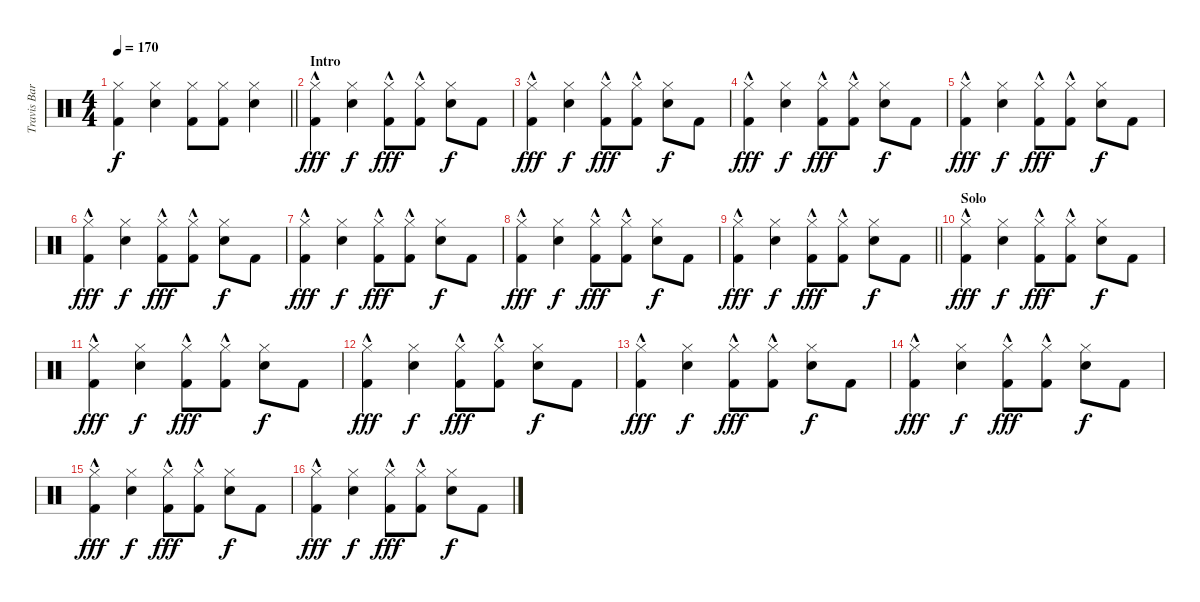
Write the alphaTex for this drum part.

\track ("Travis Barker" "Travis Bar") {instrument percussion}
\staff {score}
\articulation defaults
\ts (4 4)
\tempo 170
\clef neutral
\barLineRight lightlight
\ks c
("Hi-Hat (closed)" "Kick (hit) 2").4{dy f} ("Hi-Hat (closed)" "Snare (hit) 2").4 ("Kick (hit) 2" "Hi-Hat (closed)").8 ("Kick (hit) 2" "Hi-Hat (closed)").8 ("Snare (hit) 2" "Hi-Hat (closed)").4 |
\section ("" "Intro")
("Hi-Hat (closed)" "Kick (hit) 2"{hac}).4{dy fff} ("Hi-Hat (closed)" "Snare (hit) 2").4{dy f} ("Hi-Hat (closed)" "Kick (hit) 2"{hac}).8{dy fff} ("Hi-Hat (closed)" "Kick (hit) 2"{hac}).8 ("Hi-Hat (closed)" "Snare (hit) 2").8{dy f} "Kick (hit) 2".8 |
("Hi-Hat (closed)" "Kick (hit) 2"{hac}).4{dy fff} ("Hi-Hat (closed)" "Snare (hit) 2").4{dy f} ("Hi-Hat (closed)" "Kick (hit) 2"{hac}).8{dy fff} ("Hi-Hat (closed)" "Kick (hit) 2"{hac}).8 ("Hi-Hat (closed)" "Snare (hit) 2").8{dy f} "Kick (hit) 2".8 |
("Hi-Hat (closed)" "Kick (hit) 2"{hac}).4{dy fff} ("Hi-Hat (closed)" "Snare (hit) 2").4{dy f} ("Hi-Hat (closed)" "Kick (hit) 2"{hac}).8{dy fff} ("Hi-Hat (closed)" "Kick (hit) 2"{hac}).8 ("Hi-Hat (closed)" "Snare (hit) 2").8{dy f} "Kick (hit) 2".8 |
("Hi-Hat (closed)" "Kick (hit) 2"{hac}).4{dy fff} ("Hi-Hat (closed)" "Snare (hit) 2").4{dy f} ("Hi-Hat (closed)" "Kick (hit) 2"{hac}).8{dy fff} ("Hi-Hat (closed)" "Kick (hit) 2"{hac}).8 ("Hi-Hat (closed)" "Snare (hit) 2").8{dy f} "Kick (hit) 2".8 |
("Hi-Hat (closed)" "Kick (hit) 2"{hac}).4{dy fff} ("Hi-Hat (closed)" "Snare (hit) 2").4{dy f} ("Hi-Hat (closed)" "Kick (hit) 2"{hac}).8{dy fff} ("Hi-Hat (closed)" "Kick (hit) 2"{hac}).8 ("Hi-Hat (closed)" "Snare (hit) 2").8{dy f} "Kick (hit) 2".8 |
("Hi-Hat (closed)" "Kick (hit) 2"{hac}).4{dy fff} ("Hi-Hat (closed)" "Snare (hit) 2").4{dy f} ("Hi-Hat (closed)" "Kick (hit) 2"{hac}).8{dy fff} ("Hi-Hat (closed)" "Kick (hit) 2"{hac}).8 ("Hi-Hat (closed)" "Snare (hit) 2").8{dy f} "Kick (hit) 2".8 |
("Hi-Hat (closed)" "Kick (hit) 2"{hac}).4{dy fff} ("Hi-Hat (closed)" "Snare (hit) 2").4{dy f} ("Hi-Hat (closed)" "Kick (hit) 2"{hac}).8{dy fff} ("Hi-Hat (closed)" "Kick (hit) 2"{hac}).8 ("Hi-Hat (closed)" "Snare (hit) 2").8{dy f} "Kick (hit) 2".8 |
\barLineRight lightlight
("Hi-Hat (closed)" "Kick (hit) 2"{hac}).4{dy fff} ("Hi-Hat (closed)" "Snare (hit) 2").4{dy f} ("Hi-Hat (closed)" "Kick (hit) 2"{hac}).8{dy fff} ("Hi-Hat (closed)" "Kick (hit) 2"{hac}).8 ("Hi-Hat (closed)" "Snare (hit) 2").8{dy f} "Kick (hit) 2".8 |
\section ("" "Solo")
("Hi-Hat (closed)" "Kick (hit) 2"{hac}).4{dy fff} ("Hi-Hat (closed)" "Snare (hit) 2").4{dy f} ("Hi-Hat (closed)" "Kick (hit) 2"{hac}).8{dy fff} ("Hi-Hat (closed)" "Kick (hit) 2"{hac}).8 ("Hi-Hat (closed)" "Snare (hit) 2").8{dy f} "Kick (hit) 2".8 |
("Hi-Hat (closed)" "Kick (hit) 2"{hac}).4{dy fff} ("Hi-Hat (closed)" "Snare (hit) 2").4{dy f} ("Hi-Hat (closed)" "Kick (hit) 2"{hac}).8{dy fff} ("Hi-Hat (closed)" "Kick (hit) 2"{hac}).8 ("Hi-Hat (closed)" "Snare (hit) 2").8{dy f} "Kick (hit) 2".8 |
("Hi-Hat (closed)" "Kick (hit) 2"{hac}).4{dy fff} ("Hi-Hat (closed)" "Snare (hit) 2").4{dy f} ("Hi-Hat (closed)" "Kick (hit) 2"{hac}).8{dy fff} ("Hi-Hat (closed)" "Kick (hit) 2"{hac}).8 ("Hi-Hat (closed)" "Snare (hit) 2").8{dy f} "Kick (hit) 2".8 |
("Hi-Hat (closed)" "Kick (hit) 2"{hac}).4{dy fff} ("Hi-Hat (closed)" "Snare (hit) 2").4{dy f} ("Hi-Hat (closed)" "Kick (hit) 2"{hac}).8{dy fff} ("Hi-Hat (closed)" "Kick (hit) 2"{hac}).8 ("Hi-Hat (closed)" "Snare (hit) 2").8{dy f} "Kick (hit) 2".8 |
("Hi-Hat (closed)" "Kick (hit) 2"{hac}).4{dy fff} ("Hi-Hat (closed)" "Snare (hit) 2").4{dy f} ("Hi-Hat (closed)" "Kick (hit) 2"{hac}).8{dy fff} ("Hi-Hat (closed)" "Kick (hit) 2"{hac}).8 ("Hi-Hat (closed)" "Snare (hit) 2").8{dy f} "Kick (hit) 2".8 |
("Hi-Hat (closed)" "Kick (hit) 2"{hac}).4{dy fff} ("Hi-Hat (closed)" "Snare (hit) 2").4{dy f} ("Hi-Hat (closed)" "Kick (hit) 2"{hac}).8{dy fff} ("Hi-Hat (closed)" "Kick (hit) 2"{hac}).8 ("Hi-Hat (closed)" "Snare (hit) 2").8{dy f} "Kick (hit) 2".8 |
("Hi-Hat (closed)" "Kick (hit) 2"{hac}).4{dy fff} ("Hi-Hat (closed)" "Snare (hit) 2").4{dy f} ("Hi-Hat (closed)" "Kick (hit) 2"{hac}).8{dy fff} ("Hi-Hat (closed)" "Kick (hit) 2"{hac}).8 ("Hi-Hat (closed)" "Snare (hit) 2").8{dy f} "Kick (hit) 2".8
